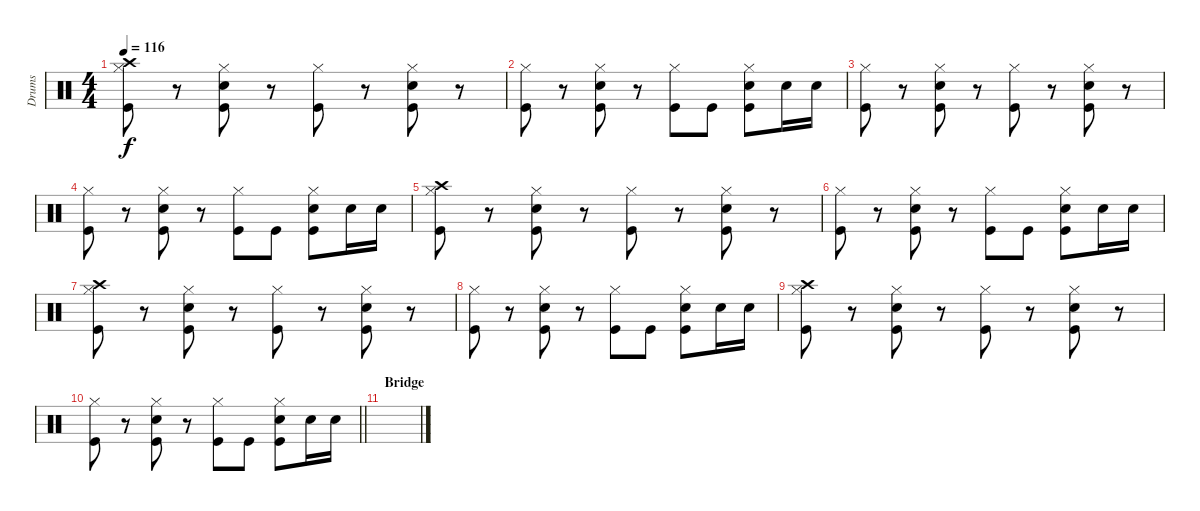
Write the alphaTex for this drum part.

\track ("Drums" "Drums") {instrument percussion}
\staff {score}
\articulation defaults
\ts (4 4)
\tempo 116
\clef neutral
\ks c
("Crash high (hit)" "Hi-Hat (closed)" "Kick (hit)").8{dy f} r.8 ("Hi-Hat (closed)" "Snare (hit) 2" "Kick (hit)").8 r.8 ("Hi-Hat (closed)" "Kick (hit)").8 r.8 ("Hi-Hat (closed)" "Snare (hit) 2" "Kick (hit)").8 r.8 |
("Hi-Hat (closed)" "Kick (hit)").8 r.8 ("Hi-Hat (closed)" "Snare (hit) 2" "Kick (hit)").8 r.8 ("Hi-Hat (closed)" "Kick (hit)").8 "Kick (hit)".8 ("Hi-Hat (closed)" "Snare (hit) 2" "Kick (hit)").8 "Snare (hit) 2".16 "Snare (hit) 2".16 |
("Hi-Hat (closed)" "Kick (hit)").8 r.8 ("Hi-Hat (closed)" "Snare (hit) 2" "Kick (hit)").8 r.8 ("Hi-Hat (closed)" "Kick (hit)").8 r.8 ("Hi-Hat (closed)" "Snare (hit) 2" "Kick (hit)").8 r.8 |
("Hi-Hat (closed)" "Kick (hit)").8 r.8 ("Hi-Hat (closed)" "Snare (hit) 2" "Kick (hit)").8 r.8 ("Hi-Hat (closed)" "Kick (hit)").8 "Kick (hit)".8 ("Hi-Hat (closed)" "Snare (hit) 2" "Kick (hit)").8 "Snare (hit) 2".16 "Snare (hit) 2".16 |
("Crash high (hit)" "Hi-Hat (closed)" "Kick (hit)").8 r.8 ("Hi-Hat (closed)" "Snare (hit) 2" "Kick (hit)").8 r.8 ("Hi-Hat (closed)" "Kick (hit)").8 r.8 ("Hi-Hat (closed)" "Snare (hit) 2" "Kick (hit)").8 r.8 |
("Hi-Hat (closed)" "Kick (hit)").8 r.8 ("Hi-Hat (closed)" "Snare (hit) 2" "Kick (hit)").8 r.8 ("Hi-Hat (closed)" "Kick (hit)").8 "Kick (hit)".8 ("Hi-Hat (closed)" "Snare (hit) 2" "Kick (hit)").8 "Snare (hit) 2".16 "Snare (hit) 2".16 |
("Crash high (hit)" "Hi-Hat (closed)" "Kick (hit)").8 r.8 ("Hi-Hat (closed)" "Snare (hit) 2" "Kick (hit)").8 r.8 ("Hi-Hat (closed)" "Kick (hit)").8 r.8 ("Hi-Hat (closed)" "Snare (hit) 2" "Kick (hit)").8 r.8 |
("Hi-Hat (closed)" "Kick (hit)").8 r.8 ("Hi-Hat (closed)" "Snare (hit) 2" "Kick (hit)").8 r.8 ("Hi-Hat (closed)" "Kick (hit)").8 "Kick (hit)".8 ("Hi-Hat (closed)" "Snare (hit) 2" "Kick (hit)").8 "Snare (hit) 2".16 "Snare (hit) 2".16 |
("Crash high (hit)" "Hi-Hat (closed)" "Kick (hit)").8 r.8 ("Hi-Hat (closed)" "Snare (hit) 2" "Kick (hit)").8 r.8 ("Hi-Hat (closed)" "Kick (hit)").8 r.8 ("Hi-Hat (closed)" "Snare (hit) 2" "Kick (hit)").8 r.8 |
\barLineRight lightlight
("Hi-Hat (closed)" "Kick (hit)").8 r.8 ("Hi-Hat (closed)" "Snare (hit) 2" "Kick (hit)").8 r.8 ("Hi-Hat (closed)" "Kick (hit)").8 "Kick (hit)".8 ("Hi-Hat (closed)" "Snare (hit) 2" "Kick (hit)").8 "Snare (hit) 2".16 "Snare (hit) 2".16 |
\section ("" "Bridge")
